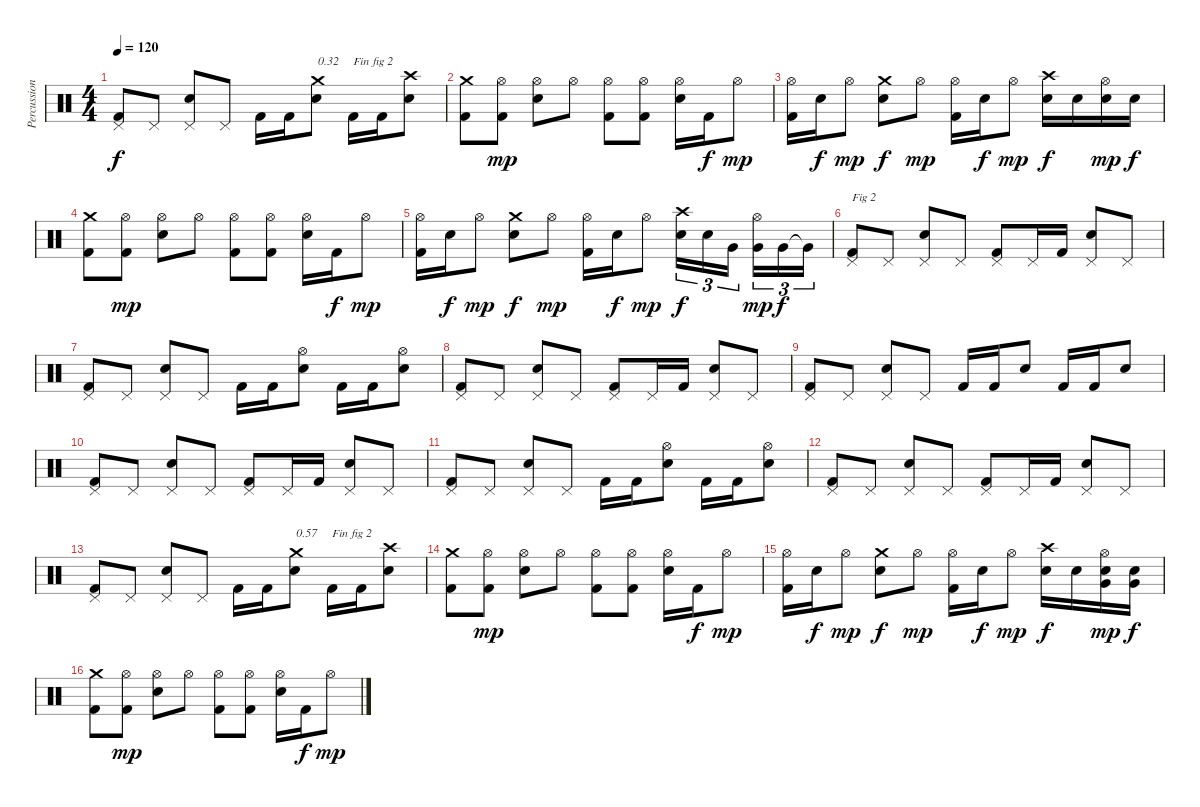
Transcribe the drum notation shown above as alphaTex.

\track ("Percussions" "Percussion") {instrument percussion}
\staff {score}
\articulation defaults
\ts (4 4)
\tempo 120
\clef neutral
\ks c
("Kick (hit) 2" "Pedal Hi-Hat (hit)").8{dy f} "Pedal Hi-Hat (hit)".8 ("Electric Snare (hit)" "Pedal Hi-Hat (hit)").8 "Pedal Hi-Hat (hit)".8 "Kick (hit) 2".16 "Kick (hit) 2".16 ("Electric Snare (hit)" "Crash medium (hit)").8{txt "0.32"} "Kick (hit) 2".16{txt "Fin fig 2"} "Kick (hit) 2".16 ("Electric Snare (hit)" "Crash high (hit)").8 |
("Kick (hit) 2" "Crash medium (hit)").8 ("Kick (hit) 2" "Hi-Hat (open)").8{dy mp} ("Electric Snare (hit)" "Hi-Hat (open)").8 "Hi-Hat (open)".8 ("Kick (hit) 2" "Hi-Hat (open)").8 ("Kick (hit) 2" "Hi-Hat (open)").8 ("Electric Snare (hit)" "Hi-Hat (open)").16 "Kick (hit) 2".16{dy f} "Hi-Hat (open)".8{dy mp} |
("Kick (hit) 2" "Hi-Hat (open)").16 "Electric Snare (hit)".16{dy f} "Hi-Hat (open)".8{dy mp} ("Electric Snare (hit)" "Crash medium (hit)").8{dy f} "Hi-Hat (open)".8{dy mp} ("Kick (hit) 2" "Hi-Hat (open)").16 "Electric Snare (hit)".16{dy f} "Hi-Hat (open)".8{dy mp} ("Electric Snare (hit)" "Crash high (hit)").16{dy f} "Electric Snare (hit)".16 ("Electric Snare (hit)" "Hi-Hat (open)").16{dy mp} "Electric Snare (hit)".16{dy f} |
("Kick (hit) 2" "Crash medium (hit)").8 ("Kick (hit) 2" "Hi-Hat (open)").8{dy mp} ("Electric Snare (hit)" "Hi-Hat (open)").8 "Hi-Hat (open)".8 ("Kick (hit) 2" "Hi-Hat (open)").8 ("Kick (hit) 2" "Hi-Hat (open)").8 ("Electric Snare (hit)" "Hi-Hat (open)").16 "Kick (hit) 2".16{dy f} "Hi-Hat (open)".8{dy mp} |
("Kick (hit) 2" "Hi-Hat (open)").16 "Electric Snare (hit)".16{dy f} "Hi-Hat (open)".8{dy mp} ("Electric Snare (hit)" "Crash medium (hit)").8{dy f} "Hi-Hat (open)".8{dy mp} ("Kick (hit) 2" "Hi-Hat (open)").16 "Electric Snare (hit)".16{dy f} "Hi-Hat (open)".8{dy mp} ("Electric Snare (hit)" "Crash high (hit)").16{tu (3 2) dy f} "Electric Snare (hit)".16{tu (3 2)} "Very Low Tom (hit)".16{tu (3 2)} ("Very Low Tom (hit)" "Hi-Hat (open)").16{tu (3 2) dy mp} "Very Low Tom (hit)".16{tu (3 2) dy f} "Very Low Tom (hit)"{t}.16{tu (3 2)} |
("Kick (hit) 2" "Pedal Hi-Hat (hit)").8{txt "Fig 2"} "Pedal Hi-Hat (hit)".8 ("Electric Snare (hit)" "Pedal Hi-Hat (hit)").8 "Pedal Hi-Hat (hit)".8 ("Kick (hit) 2" "Pedal Hi-Hat (hit)").8 "Pedal Hi-Hat (hit)".16 "Kick (hit) 2".16 ("Electric Snare (hit)" "Pedal Hi-Hat (hit)").8 "Pedal Hi-Hat (hit)".8 |
("Kick (hit) 2" "Pedal Hi-Hat (hit)").8 "Pedal Hi-Hat (hit)".8 ("Electric Snare (hit)" "Pedal Hi-Hat (hit)").8 "Pedal Hi-Hat (hit)".8 "Kick (hit) 2".16 "Kick (hit) 2".16 ("Electric Snare (hit)" "Hi-Hat (open)").8 "Kick (hit) 2".16 "Kick (hit) 2".16 ("Electric Snare (hit)" "Hi-Hat (open)").8 |
("Kick (hit) 2" "Pedal Hi-Hat (hit)").8 "Pedal Hi-Hat (hit)".8 ("Electric Snare (hit)" "Pedal Hi-Hat (hit)").8 "Pedal Hi-Hat (hit)".8 ("Kick (hit) 2" "Pedal Hi-Hat (hit)").8 "Pedal Hi-Hat (hit)".16 "Kick (hit) 2".16 ("Electric Snare (hit)" "Pedal Hi-Hat (hit)").8 "Pedal Hi-Hat (hit)".8 |
("Kick (hit) 2" "Pedal Hi-Hat (hit)").8 "Pedal Hi-Hat (hit)".8 ("Electric Snare (hit)" "Pedal Hi-Hat (hit)").8 "Pedal Hi-Hat (hit)".8 "Kick (hit) 2".16 "Kick (hit) 2".16 "Electric Snare (hit)".8 "Kick (hit) 2".16 "Kick (hit) 2".16 "Electric Snare (hit)".8 |
("Kick (hit) 2" "Pedal Hi-Hat (hit)").8 "Pedal Hi-Hat (hit)".8 ("Electric Snare (hit)" "Pedal Hi-Hat (hit)").8 "Pedal Hi-Hat (hit)".8 ("Kick (hit) 2" "Pedal Hi-Hat (hit)").8 "Pedal Hi-Hat (hit)".16 "Kick (hit) 2".16 ("Electric Snare (hit)" "Pedal Hi-Hat (hit)").8 "Pedal Hi-Hat (hit)".8 |
("Kick (hit) 2" "Pedal Hi-Hat (hit)").8 "Pedal Hi-Hat (hit)".8 ("Electric Snare (hit)" "Pedal Hi-Hat (hit)").8 "Pedal Hi-Hat (hit)".8 "Kick (hit) 2".16 "Kick (hit) 2".16 ("Electric Snare (hit)" "Hi-Hat (open)").8 "Kick (hit) 2".16 "Kick (hit) 2".16 ("Electric Snare (hit)" "Hi-Hat (open)").8 |
("Kick (hit) 2" "Pedal Hi-Hat (hit)").8 "Pedal Hi-Hat (hit)".8 ("Electric Snare (hit)" "Pedal Hi-Hat (hit)").8 "Pedal Hi-Hat (hit)".8 ("Kick (hit) 2" "Pedal Hi-Hat (hit)").8 "Pedal Hi-Hat (hit)".16 "Kick (hit) 2".16 ("Electric Snare (hit)" "Pedal Hi-Hat (hit)").8 "Pedal Hi-Hat (hit)".8 |
("Kick (hit) 2" "Pedal Hi-Hat (hit)").8 "Pedal Hi-Hat (hit)".8 ("Electric Snare (hit)" "Pedal Hi-Hat (hit)").8 "Pedal Hi-Hat (hit)".8 "Kick (hit) 2".16 "Kick (hit) 2".16 ("Electric Snare (hit)" "Crash medium (hit)").8{txt "0.57"} "Kick (hit) 2".16{txt "Fin fig 2"} "Kick (hit) 2".16 ("Electric Snare (hit)" "Crash high (hit)").8 |
("Kick (hit) 2" "Crash medium (hit)").8 ("Kick (hit) 2" "Hi-Hat (open)").8{dy mp} ("Electric Snare (hit)" "Hi-Hat (open)").8 "Hi-Hat (open)".8 ("Kick (hit) 2" "Hi-Hat (open)").8 ("Kick (hit) 2" "Hi-Hat (open)").8 ("Electric Snare (hit)" "Hi-Hat (open)").16 "Kick (hit) 2".16{dy f} "Hi-Hat (open)".8{dy mp} |
("Kick (hit) 2" "Hi-Hat (open)").16 "Electric Snare (hit)".16{dy f} "Hi-Hat (open)".8{dy mp} ("Electric Snare (hit)" "Crash medium (hit)").8{dy f} "Hi-Hat (open)".8{dy mp} ("Kick (hit) 2" "Hi-Hat (open)").16 "Electric Snare (hit)".16{dy f} "Hi-Hat (open)".8{dy mp} ("Electric Snare (hit)" "Crash high (hit)").16{dy f} "Electric Snare (hit)".16 ("Electric Snare (hit)" "Very Low Tom (hit)" "Hi-Hat (open)").16{dy mp} ("Electric Snare (hit)" "Very Low Tom (hit)").16{dy f} |
("Kick (hit) 2" "Crash medium (hit)").8 ("Kick (hit) 2" "Hi-Hat (open)").8{dy mp} ("Electric Snare (hit)" "Hi-Hat (open)").8 "Hi-Hat (open)".8 ("Kick (hit) 2" "Hi-Hat (open)").8 ("Kick (hit) 2" "Hi-Hat (open)").8 ("Electric Snare (hit)" "Hi-Hat (open)").16 "Kick (hit) 2".16{dy f} "Hi-Hat (open)".8{dy mp}
